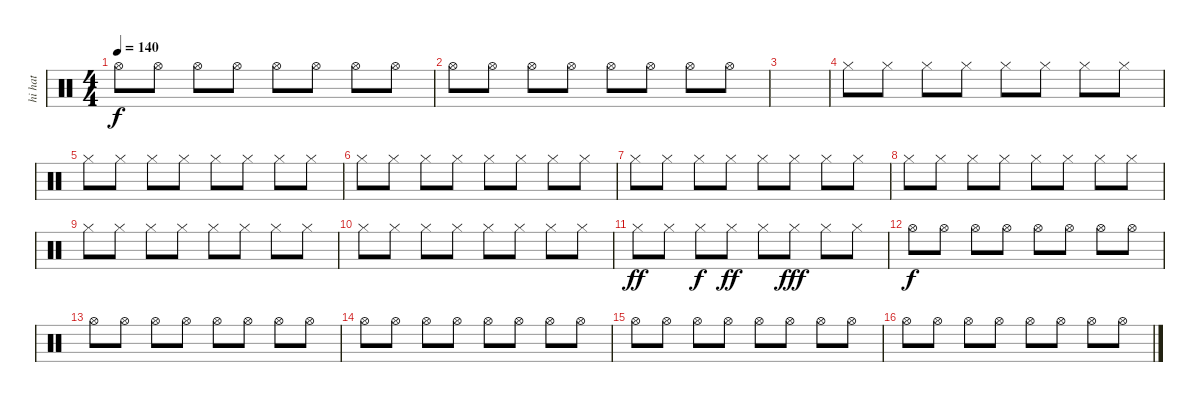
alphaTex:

\track ("hi hat" "hi hat") {instrument percussion}
\staff {score}
\articulation defaults
\ts (4 4)
\tempo 140
\clef neutral
\ks c "Hi-Hat (open)".8{dy f} "Hi-Hat (open)".8 "Hi-Hat (open)".8 "Hi-Hat (open)".8 "Hi-Hat (open)".8 "Hi-Hat (open)".8 "Hi-Hat (open)".8 "Hi-Hat (open)".8
|
"Hi-Hat (open)".8 "Hi-Hat (open)".8 "Hi-Hat (open)".8 "Hi-Hat (open)".8 "Hi-Hat (open)".8 "Hi-Hat (open)".8 "Hi-Hat (open)".8 "Hi-Hat (open)".8 |
|
"Hi-Hat (closed)".8 "Hi-Hat (closed)".8 "Hi-Hat (closed)".8 "Hi-Hat (closed)".8 "Hi-Hat (closed)".8 "Hi-Hat (closed)".8 "Hi-Hat (closed)".8 "Hi-Hat (closed)".8 |
"Hi-Hat (closed)".8 "Hi-Hat (closed)".8 "Hi-Hat (closed)".8 "Hi-Hat (closed)".8 "Hi-Hat (closed)".8 "Hi-Hat (closed)".8 "Hi-Hat (closed)".8 "Hi-Hat (closed)".8 |
"Hi-Hat (closed)".8 "Hi-Hat (closed)".8 "Hi-Hat (closed)".8 "Hi-Hat (closed)".8 "Hi-Hat (closed)".8 "Hi-Hat (closed)".8 "Hi-Hat (closed)".8 "Hi-Hat (closed)".8 |
"Hi-Hat (closed)".8 "Hi-Hat (closed)".8 "Hi-Hat (closed)".8 "Hi-Hat (closed)".8 "Hi-Hat (closed)".8 "Hi-Hat (closed)".8 "Hi-Hat (closed)".8 "Hi-Hat (closed)".8 |
"Hi-Hat (closed)".8 "Hi-Hat (closed)".8 "Hi-Hat (closed)".8 "Hi-Hat (closed)".8 "Hi-Hat (closed)".8 "Hi-Hat (closed)".8 "Hi-Hat (closed)".8 "Hi-Hat (closed)".8 |
"Hi-Hat (closed)".8 "Hi-Hat (closed)".8 "Hi-Hat (closed)".8 "Hi-Hat (closed)".8 "Hi-Hat (closed)".8 "Hi-Hat (closed)".8 "Hi-Hat (closed)".8 "Hi-Hat (closed)".8 |
"Hi-Hat (closed)".8 "Hi-Hat (closed)".8 "Hi-Hat (closed)".8 "Hi-Hat (closed)".8 "Hi-Hat (closed)".8 "Hi-Hat (closed)".8 "Hi-Hat (closed)".8 "Hi-Hat (closed)".8 |
"Hi-Hat (closed)".8{dy ff} "Hi-Hat (closed)".8 "Hi-Hat (closed)".8{dy f} "Hi-Hat (closed)".8{dy ff} "Hi-Hat (closed)".8 "Hi-Hat (closed)".8{dy fff} "Hi-Hat (closed)".8 "Hi-Hat (closed)".8 |
"Hi-Hat (open)".8{dy f} "Hi-Hat (open)".8 "Hi-Hat (open)".8 "Hi-Hat (open)".8 "Hi-Hat (open)".8 "Hi-Hat (open)".8 "Hi-Hat (open)".8 "Hi-Hat (open)".8 |
"Hi-Hat (open)".8 "Hi-Hat (open)".8 "Hi-Hat (open)".8 "Hi-Hat (open)".8 "Hi-Hat (open)".8 "Hi-Hat (open)".8 "Hi-Hat (open)".8 "Hi-Hat (open)".8 |
"Hi-Hat (open)".8 "Hi-Hat (open)".8 "Hi-Hat (open)".8 "Hi-Hat (open)".8 "Hi-Hat (open)".8 "Hi-Hat (open)".8 "Hi-Hat (open)".8 "Hi-Hat (open)".8 |
"Hi-Hat (open)".8 "Hi-Hat (open)".8 "Hi-Hat (open)".8 "Hi-Hat (open)".8 "Hi-Hat (open)".8 "Hi-Hat (open)".8 "Hi-Hat (open)".8 "Hi-Hat (open)".8 |
"Hi-Hat (open)".8 "Hi-Hat (open)".8 "Hi-Hat (open)".8 "Hi-Hat (open)".8 "Hi-Hat (open)".8 "Hi-Hat (open)".8 "Hi-Hat (open)".8 "Hi-Hat (open)".8
